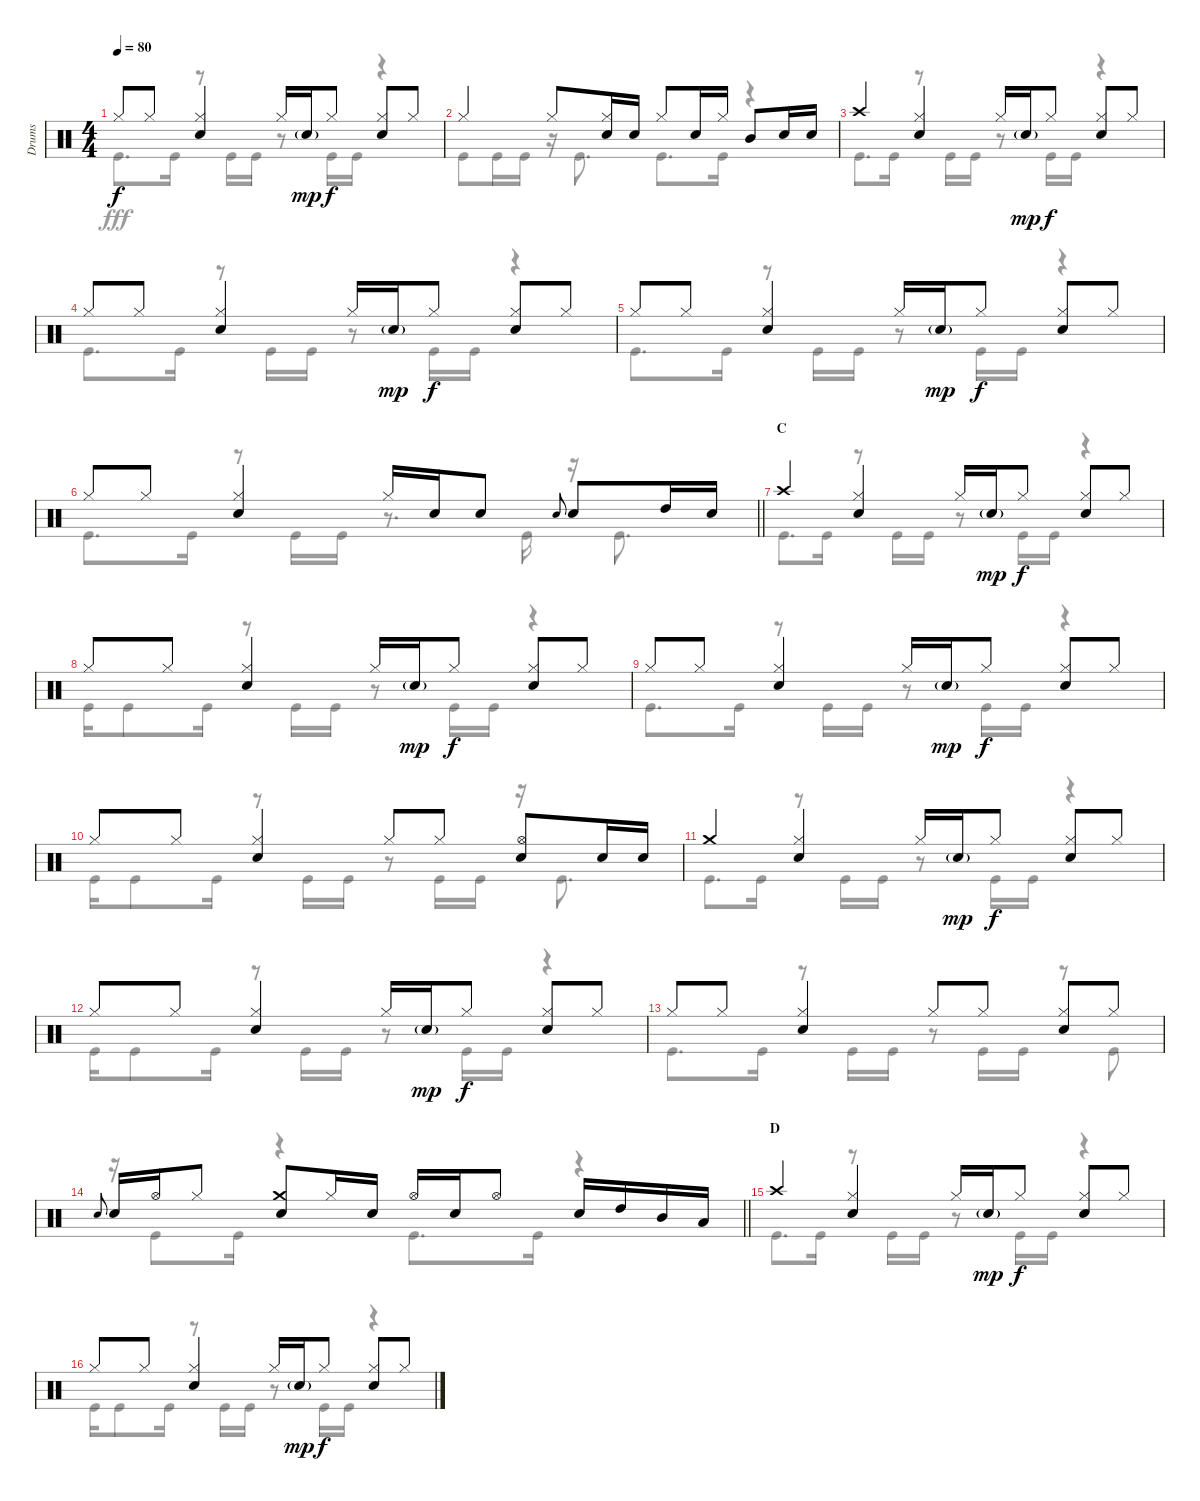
\track ("Drums" "Drums") {instrument percussion}
\staff {score}
\articulation defaults
\voice
\ts (4 4)
\tempo 80
\clef neutral
\ks c "Hi-Hat (closed)".8{dy f} "Hi-Hat (closed)".8
("Hi-Hat (closed)" "Snare (hit) 2").4 "Hi-Hat (closed)".16 "Snare (hit) 2"{g}.16{dy mp} "Hi-Hat (closed)".8{dy f} ("Hi-Hat (closed)" "Snare (hit) 2").8 "Hi-Hat (closed)".8 |
"Hi-Hat (closed)".4 "Hi-Hat (closed)".8 ("Hi-Hat (closed)" "Snare (hit) 2").16 "Snare (hit) 2".16 "Hi-Hat (closed)".8 "Snare (hit) 2".16 "Hi-Hat (closed)".16 "Mid Tom (hit)".8 "Snare (hit) 2".16 "Snare (hit) 2".16 |
"Crash high (hit)".4 ("Hi-Hat (closed)" "Snare (hit) 2").4 "Hi-Hat (closed)".16 "Snare (hit) 2"{g}.16{dy mp} "Hi-Hat (closed)".8{dy f} ("Hi-Hat (closed)" "Snare (hit) 2").8 "Hi-Hat (closed)".8 |
"Hi-Hat (closed)".8 "Hi-Hat (closed)".8 ("Hi-Hat (closed)" "Snare (hit) 2").4 "Hi-Hat (closed)".16 "Snare (hit) 2"{g}.16{dy mp} "Hi-Hat (closed)".8{dy f} ("Hi-Hat (closed)" "Snare (hit) 2").8 "Hi-Hat (closed)".8 |
"Hi-Hat (closed)".8 "Hi-Hat (closed)".8 ("Hi-Hat (closed)" "Snare (hit) 2").4 "Hi-Hat (closed)".16 "Snare (hit) 2"{g}.16{dy mp} "Hi-Hat (closed)".8{dy f} ("Hi-Hat (closed)" "Snare (hit) 2").8 "Hi-Hat (closed)".8 |
\barLineRight lightlight "Hi-Hat (closed)".8 "Hi-Hat (closed)".8
("Hi-Hat (closed)" "Snare (hit) 2").4 "Hi-Hat (closed)".16 "Snare (hit) 2".16 "Snare (hit) 2".8 "Snare (hit) 2".8{gr onbeat} "Snare (hit) 2".8 "High Tom (hit)".16 "Snare (hit) 2".16 |
\section ("" "C")
"Crash high (hit)".4 ("Hi-Hat (closed)" "Snare (hit) 2").4 "Hi-Hat (closed)".16 "Snare (hit) 2"{g}.16{dy mp} "Hi-Hat (closed)".8{dy f} ("Hi-Hat (closed)" "Snare (hit) 2").8 "Hi-Hat (closed)".8 |
"Hi-Hat (closed)".8 "Hi-Hat (closed)".8 ("Hi-Hat (closed)" "Snare (hit) 2").4 "Hi-Hat (closed)".16 "Snare (hit) 2"{g}.16{dy mp} "Hi-Hat (closed)".8{dy f} ("Hi-Hat (closed)" "Snare (hit) 2").8 "Hi-Hat (closed)".8 |
"Hi-Hat (closed)".8 "Hi-Hat (closed)".8 ("Hi-Hat (closed)" "Snare (hit) 2").4 "Hi-Hat (closed)".16 "Snare (hit) 2"{g}.16{dy mp} "Hi-Hat (closed)".8{dy f} ("Hi-Hat (closed)" "Snare (hit) 2").8 "Hi-Hat (closed)".8 |
"Hi-Hat (closed)".8 "Hi-Hat (closed)".8 ("Hi-Hat (closed)" "Snare (hit) 2").4 "Hi-Hat (closed)".8 "Hi-Hat (closed)".8 ("Hi-Hat (open)" "Snare (hit) 2").8 "Snare (hit) 2".16 "Snare (hit) 2".16 |
"Crash medium (hit)".4 ("Hi-Hat (closed)" "Snare (hit) 2").4 "Hi-Hat (closed)".16 "Snare (hit) 2"{g}.16{dy mp} "Hi-Hat (closed)".8{dy f} ("Hi-Hat (closed)" "Snare (hit) 2").8 "Hi-Hat (closed)".8 |
"Hi-Hat (closed)".8 "Hi-Hat (closed)".8 ("Hi-Hat (closed)" "Snare (hit) 2").4 "Hi-Hat (closed)".16 "Snare (hit) 2"{g}.16{dy mp} "Hi-Hat (closed)".8{dy f} ("Hi-Hat (closed)" "Snare (hit) 2").8 "Hi-Hat (closed)".8 |
"Hi-Hat (closed)".8 "Hi-Hat (closed)".8 ("Hi-Hat (closed)" "Snare (hit) 2").4 "Hi-Hat (closed)".8 "Hi-Hat (closed)".8 ("Hi-Hat (closed)" "Snare (hit) 2").8 "Hi-Hat (closed)".8 |
\barLineRight lightlight "Snare (hit) 2".8{gr onbeat} "Snare (hit) 2".16 "Hi-Hat (open)".16 "Hi-Hat (closed)".8
("Crash medium (hit)" "Snare (hit) 2").8 "Hi-Hat (closed)".16 "Snare (hit) 2".16 "Hi-Hat (open)".16 "Snare (hit) 2".16 "Hi-Hat (open)".8 "Snare (hit) 2".16 "High Tom (hit)".16 "Mid Tom (hit)".16 "Low Tom (hit)".16 |
\section ("" "D")
"Crash high (hit)".4 ("Hi-Hat (closed)" "Snare (hit) 2").4 "Hi-Hat (closed)".16 "Snare (hit) 2"{g}.16{dy mp} "Hi-Hat (closed)".8{dy f} ("Hi-Hat (closed)" "Snare (hit) 2").8 "Hi-Hat (closed)".8 |
"Hi-Hat (closed)".8 "Hi-Hat (closed)".8 ("Hi-Hat (closed)" "Snare (hit) 2").4 "Hi-Hat (closed)".16 "Snare (hit) 2"{g}.16{dy mp} "Hi-Hat (closed)".8{dy f} ("Hi-Hat (closed)" "Snare (hit) 2").8 "Hi-Hat (closed)".8
\voice
\clef neutral
\ottava regular
\simile none
\ks c "Kick (hit)".8{d dy fff} "Kick (hit)".16
r.8 "Kick (hit)".16 "Kick (hit)".16 r.8 "Kick (hit)".16 "Kick (hit)".16 r.4 |
"Kick (hit)".8 "Kick (hit)".16 "Kick (hit)".16 r.16 "Kick (hit)".8{d} "Kick (hit)".8{d} "Kick (hit)".16 r.4 |
"Kick (hit)".8{d} "Kick (hit)".16 r.8 "Kick (hit)".16 "Kick (hit)".16 r.8 "Kick (hit)".16 "Kick (hit)".16 r.4 |
"Kick (hit)".8{d} "Kick (hit)".16 r.8 "Kick (hit)".16 "Kick (hit)".16 r.8 "Kick (hit)".16 "Kick (hit)".16 r.4 |
"Kick (hit)".8{d} "Kick (hit)".16 r.8 "Kick (hit)".16 "Kick (hit)".16 r.8 "Kick (hit)".16 "Kick (hit)".16 r.4 |
\barLineRight lightlight "Kick (hit)".8{d} "Kick (hit)".16
r.8 "Kick (hit)".16 "Kick (hit)".16 r.8{d} "Kick (hit)".16 r.16 "Kick (hit)".8{d} |
"Kick (hit)".8{d} "Kick (hit)".16 r.8 "Kick (hit)".16 "Kick (hit)".16 r.8 "Kick (hit)".16 "Kick (hit)".16 r.4 |
"Kick (hit)".16 "Kick (hit)".8 "Kick (hit)".16 r.8 "Kick (hit)".16 "Kick (hit)".16 r.8 "Kick (hit)".16 "Kick (hit)".16 r.4 |
"Kick (hit)".8{d} "Kick (hit)".16 r.8 "Kick (hit)".16 "Kick (hit)".16 r.8 "Kick (hit)".16 "Kick (hit)".16 r.4 |
"Kick (hit)".16 "Kick (hit)".8 "Kick (hit)".16 r.8 "Kick (hit)".16 "Kick (hit)".16 r.8 "Kick (hit)".16 "Kick (hit)".16 r.16 "Kick (hit)".8{d} |
"Kick (hit)".8{d} "Kick (hit)".16 r.8 "Kick (hit)".16 "Kick (hit)".16 r.8 "Kick (hit)".16 "Kick (hit)".16 r.4 |
"Kick (hit)".16 "Kick (hit)".8 "Kick (hit)".16 r.8 "Kick (hit)".16 "Kick (hit)".16 r.8 "Kick (hit)".16 "Kick (hit)".16 r.4 |
"Kick (hit)".8{d} "Kick (hit)".16 r.8 "Kick (hit)".16 "Kick (hit)".16 r.8 "Kick (hit)".16 "Kick (hit)".16 r.8 "Kick (hit)".8 |
\barLineRight lightlight
r.16 "Kick (hit)".8 "Kick (hit)".16 r.4 "Kick (hit)".8{d} "Kick (hit)".16 r.4 |
"Kick (hit)".8{d} "Kick (hit)".16 r.8 "Kick (hit)".16 "Kick (hit)".16 r.8 "Kick (hit)".16 "Kick (hit)".16 r.4 |
"Kick (hit)".16 "Kick (hit)".8 "Kick (hit)".16 r.8 "Kick (hit)".16 "Kick (hit)".16 r.8 "Kick (hit)".16 "Kick (hit)".16 r.4
